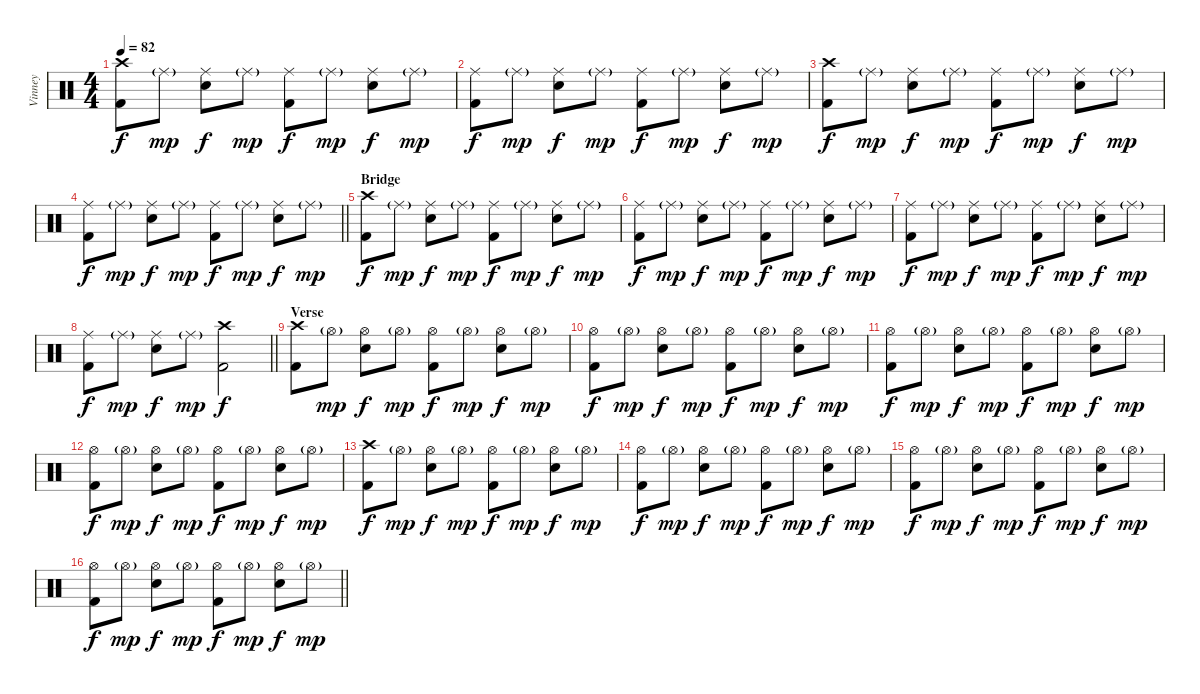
\track ("Vinney" "Vinney") {instrument percussion}
\staff {score}
\articulation defaults
\ts (4 4)
\tempo 82
\clef neutral
\ks c
("Crash high (hit)" "Kick (hit) 2").8{dy f} "Ride (middle)"{g}.8{dy mp} ("Ride (middle)" "Electric Snare (hit)").8{dy f} "Ride (middle)"{g}.8{dy mp} ("Ride (middle)" "Kick (hit) 2").8{dy f} "Ride (middle)"{g}.8{dy mp} ("Ride (middle)" "Electric Snare (hit)").8{dy f} "Ride (middle)"{g}.8{dy mp} |
("Ride (middle)" "Kick (hit) 2").8{dy f} "Ride (middle)"{g}.8{dy mp} ("Ride (middle)" "Electric Snare (hit)").8{dy f} "Ride (middle)"{g}.8{dy mp} ("Ride (middle)" "Kick (hit) 2").8{dy f} "Ride (middle)"{g}.8{dy mp} ("Ride (middle)" "Electric Snare (hit)").8{dy f} "Ride (middle)"{g}.8{dy mp} |
("Crash high (hit)" "Kick (hit) 2").8{dy f} "Ride (middle)"{g}.8{dy mp} ("Ride (middle)" "Electric Snare (hit)").8{dy f} "Ride (middle)"{g}.8{dy mp} ("Ride (middle)" "Kick (hit) 2").8{dy f} "Ride (middle)"{g}.8{dy mp} ("Ride (middle)" "Electric Snare (hit)").8{dy f} "Ride (middle)"{g}.8{dy mp} |
\barLineRight lightlight
("Ride (middle)" "Kick (hit) 2").8{dy f} "Ride (middle)"{g}.8{dy mp} ("Ride (middle)" "Electric Snare (hit)").8{dy f} "Ride (middle)"{g}.8{dy mp} ("Ride (middle)" "Kick (hit) 2").8{dy f} "Ride (middle)"{g}.8{dy mp} ("Ride (middle)" "Electric Snare (hit)").8{dy f} "Ride (middle)"{g}.8{dy mp} |
\section ("" "Bridge")
("Crash high (hit)" "Kick (hit) 2").8{dy f} "Ride (middle)"{g}.8{dy mp} ("Ride (middle)" "Electric Snare (hit)").8{dy f} "Ride (middle)"{g}.8{dy mp} ("Ride (middle)" "Kick (hit) 2").8{dy f} "Ride (middle)"{g}.8{dy mp} ("Ride (middle)" "Electric Snare (hit)").8{dy f} "Ride (middle)"{g}.8{dy mp} |
("Ride (middle)" "Kick (hit) 2").8{dy f} "Ride (middle)"{g}.8{dy mp} ("Ride (middle)" "Electric Snare (hit)").8{dy f} "Ride (middle)"{g}.8{dy mp} ("Ride (middle)" "Kick (hit) 2").8{dy f} "Ride (middle)"{g}.8{dy mp} ("Ride (middle)" "Electric Snare (hit)").8{dy f} "Ride (middle)"{g}.8{dy mp} |
("Ride (middle)" "Kick (hit) 2").8{dy f} "Ride (middle)"{g}.8{dy mp} ("Ride (middle)" "Electric Snare (hit)").8{dy f} "Ride (middle)"{g}.8{dy mp} ("Ride (middle)" "Kick (hit) 2").8{dy f} "Ride (middle)"{g}.8{dy mp} ("Ride (middle)" "Electric Snare (hit)").8{dy f} "Ride (middle)"{g}.8{dy mp} |
\barLineRight lightlight
("Ride (middle)" "Kick (hit) 2").8{dy f} "Ride (middle)"{g}.8{dy mp} ("Ride (middle)" "Electric Snare (hit)").8{dy f} "Ride (middle)"{g}.8{dy mp} ("Crash high (hit)" "Kick (hit) 2").2{dy f} |
\section ("" "Verse")
("Crash high (hit)" "Kick (hit) 2").8 "Hi-Hat (open)"{g}.8{dy mp} ("Hi-Hat (open)" "Electric Snare (hit)").8{dy f} "Hi-Hat (open)"{g}.8{dy mp} ("Hi-Hat (open)" "Kick (hit) 2").8{dy f} "Hi-Hat (open)"{g}.8{dy mp} ("Hi-Hat (open)" "Electric Snare (hit)").8{dy f} "Hi-Hat (open)"{g}.8{dy mp} |
("Hi-Hat (open)" "Kick (hit) 2").8{dy f} "Hi-Hat (open)"{g}.8{dy mp} ("Hi-Hat (open)" "Electric Snare (hit)").8{dy f} "Hi-Hat (open)"{g}.8{dy mp} ("Hi-Hat (open)" "Kick (hit) 2").8{dy f} "Hi-Hat (open)"{g}.8{dy mp} ("Hi-Hat (open)" "Electric Snare (hit)").8{dy f} "Hi-Hat (open)"{g}.8{dy mp} |
("Hi-Hat (open)" "Kick (hit) 2").8{dy f} "Hi-Hat (open)"{g}.8{dy mp} ("Hi-Hat (open)" "Electric Snare (hit)").8{dy f} "Hi-Hat (open)"{g}.8{dy mp} ("Hi-Hat (open)" "Kick (hit) 2").8{dy f} "Hi-Hat (open)"{g}.8{dy mp} ("Hi-Hat (open)" "Electric Snare (hit)").8{dy f} "Hi-Hat (open)"{g}.8{dy mp} |
("Hi-Hat (open)" "Kick (hit) 2").8{dy f} "Hi-Hat (open)"{g}.8{dy mp} ("Hi-Hat (open)" "Electric Snare (hit)").8{dy f} "Hi-Hat (open)"{g}.8{dy mp} ("Hi-Hat (open)" "Kick (hit) 2").8{dy f} "Hi-Hat (open)"{g}.8{dy mp} ("Hi-Hat (open)" "Electric Snare (hit)").8{dy f} "Hi-Hat (open)"{g}.8{dy mp} |
("Crash high (hit)" "Kick (hit) 2").8{dy f} "Hi-Hat (open)"{g}.8{dy mp} ("Hi-Hat (open)" "Electric Snare (hit)").8{dy f} "Hi-Hat (open)"{g}.8{dy mp} ("Hi-Hat (open)" "Kick (hit) 2").8{dy f} "Hi-Hat (open)"{g}.8{dy mp} ("Hi-Hat (open)" "Electric Snare (hit)").8{dy f} "Hi-Hat (open)"{g}.8{dy mp} |
("Hi-Hat (open)" "Kick (hit) 2").8{dy f} "Hi-Hat (open)"{g}.8{dy mp} ("Hi-Hat (open)" "Electric Snare (hit)").8{dy f} "Hi-Hat (open)"{g}.8{dy mp} ("Hi-Hat (open)" "Kick (hit) 2").8{dy f} "Hi-Hat (open)"{g}.8{dy mp} ("Hi-Hat (open)" "Electric Snare (hit)").8{dy f} "Hi-Hat (open)"{g}.8{dy mp} |
("Hi-Hat (open)" "Kick (hit) 2").8{dy f} "Hi-Hat (open)"{g}.8{dy mp} ("Hi-Hat (open)" "Electric Snare (hit)").8{dy f} "Hi-Hat (open)"{g}.8{dy mp} ("Hi-Hat (open)" "Kick (hit) 2").8{dy f} "Hi-Hat (open)"{g}.8{dy mp} ("Hi-Hat (open)" "Electric Snare (hit)").8{dy f} "Hi-Hat (open)"{g}.8{dy mp} |
\barLineRight lightlight
("Hi-Hat (open)" "Kick (hit) 2").8{dy f} "Hi-Hat (open)"{g}.8{dy mp} ("Hi-Hat (open)" "Electric Snare (hit)").8{dy f} "Hi-Hat (open)"{g}.8{dy mp} ("Hi-Hat (open)" "Kick (hit) 2").8{dy f} "Hi-Hat (open)"{g}.8{dy mp} ("Hi-Hat (open)" "Electric Snare (hit)").8{dy f} "Hi-Hat (open)"{g}.8{dy mp}
